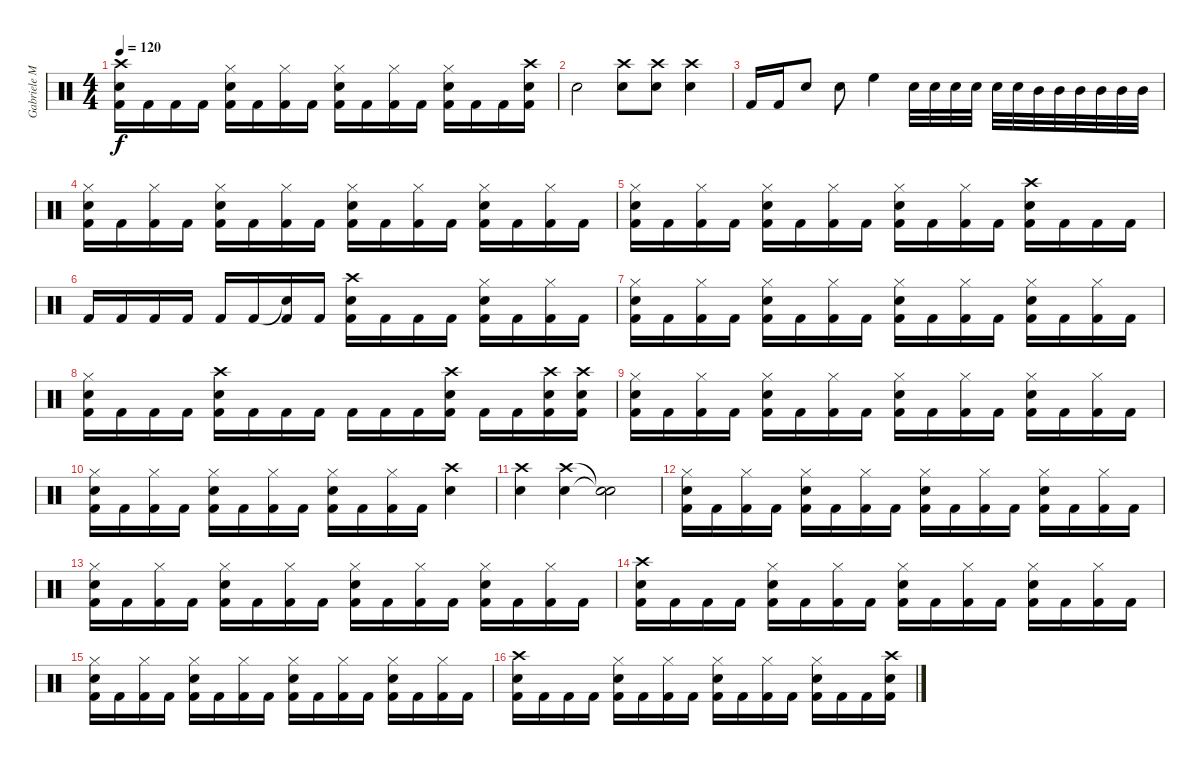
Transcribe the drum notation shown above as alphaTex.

\track ("Gabriele Malatesta" "Gabriele M") {instrument percussion}
\staff {score}
\articulation defaults
\ts (4 4)
\tempo 120
\clef neutral
\ks c
("Crash high (hit)" "Electric Snare (hit)" "Kick (hit) 2").16{dy f} "Kick (hit) 2".16 "Kick (hit) 2".16 "Kick (hit) 2".16 ("Hi-Hat (closed)" "Electric Snare (hit)" "Kick (hit) 2").16 "Kick (hit) 2".16 ("Hi-Hat (closed)" "Kick (hit) 2").16 "Kick (hit) 2".16 ("Hi-Hat (closed)" "Electric Snare (hit)" "Kick (hit) 2").16 "Kick (hit) 2".16 ("Hi-Hat (closed)" "Kick (hit) 2").16 "Kick (hit) 2".16 ("Hi-Hat (closed)" "Electric Snare (hit)" "Kick (hit) 2").16 "Kick (hit) 2".16 "Kick (hit) 2".16 ("Crash high (hit)" "Electric Snare (hit)" "Kick (hit) 2").16 |
"Electric Snare (hit)".2 ("Crash high (hit)" "Electric Snare (hit)").8 ("Crash high (hit)" "Electric Snare (hit)").8 ("Crash high (hit)" "Electric Snare (hit)").4 |
"Kick (hit) 2".16 "Kick (hit) 2".16 "Electric Snare (hit)".8 "Electric Snare (hit)".8 "High Floor Tom (hit)".4 "Electric Snare (hit)".32 "Electric Snare (hit)".32 "Electric Snare (hit)".32 "Electric Snare (hit)".32 "Electric Snare (hit)".32 "Electric Snare (hit)".32 "Mid Tom (hit)".32 "Mid Tom (hit)".32 "Mid Tom (hit)".32 "Mid Tom (hit)".32 "Mid Tom (hit)".32 "Mid Tom (hit)".32 |
("Hi-Hat (closed)" "Electric Snare (hit)" "Kick (hit) 2").16 "Kick (hit) 2".16 ("Hi-Hat (closed)" "Kick (hit) 2").16 "Kick (hit) 2".16 ("Hi-Hat (closed)" "Electric Snare (hit)" "Kick (hit) 2").16 "Kick (hit) 2".16 ("Hi-Hat (closed)" "Kick (hit) 2").16 "Kick (hit) 2".16 ("Hi-Hat (closed)" "Electric Snare (hit)" "Kick (hit) 2").16 "Kick (hit) 2".16 ("Hi-Hat (closed)" "Kick (hit) 2").16 "Kick (hit) 2".16 ("Hi-Hat (closed)" "Electric Snare (hit)" "Kick (hit) 2").16 "Kick (hit) 2".16 ("Hi-Hat (closed)" "Kick (hit) 2").16 "Kick (hit) 2".16 |
("Hi-Hat (closed)" "Electric Snare (hit)" "Kick (hit) 2").16 "Kick (hit) 2".16 ("Hi-Hat (closed)" "Kick (hit) 2").16 "Kick (hit) 2".16 ("Hi-Hat (closed)" "Electric Snare (hit)" "Kick (hit) 2").16 "Kick (hit) 2".16 ("Hi-Hat (closed)" "Kick (hit) 2").16 "Kick (hit) 2".16 ("Hi-Hat (closed)" "Electric Snare (hit)" "Kick (hit) 2").16 "Kick (hit) 2".16 ("Hi-Hat (closed)" "Kick (hit) 2").16 "Kick (hit) 2".16 ("Crash high (hit)" "Electric Snare (hit)" "Kick (hit) 2").16 "Kick (hit) 2".16 "Kick (hit) 2".16 "Kick (hit) 2".16 |
"Kick (hit) 2".16 "Kick (hit) 2".16 "Kick (hit) 2".16 "Kick (hit) 2".16 "Kick (hit) 2".16 "Kick (hit) 2".16 ("Snare (hit)"{t} "Kick (hit) 2").16 "Kick (hit) 2".16 ("Crash high (hit)" "Electric Snare (hit)" "Kick (hit) 2").16 "Kick (hit) 2".16 "Kick (hit) 2".16 "Kick (hit) 2".16 ("Hi-Hat (closed)" "Electric Snare (hit)" "Kick (hit) 2").16 "Kick (hit) 2".16 ("Hi-Hat (closed)" "Kick (hit) 2").16 "Kick (hit) 2".16 |
("Hi-Hat (closed)" "Electric Snare (hit)" "Kick (hit) 2").16 "Kick (hit) 2".16 ("Hi-Hat (closed)" "Kick (hit) 2").16 "Kick (hit) 2".16 ("Hi-Hat (closed)" "Electric Snare (hit)" "Kick (hit) 2").16 "Kick (hit) 2".16 ("Hi-Hat (closed)" "Kick (hit) 2").16 "Kick (hit) 2".16 ("Hi-Hat (closed)" "Electric Snare (hit)" "Kick (hit) 2").16 "Kick (hit) 2".16 ("Hi-Hat (closed)" "Kick (hit) 2").16 "Kick (hit) 2".16 ("Hi-Hat (closed)" "Electric Snare (hit)" "Kick (hit) 2").16 "Kick (hit) 2".16 ("Hi-Hat (closed)" "Kick (hit) 2").16 "Kick (hit) 2".16 |
("Hi-Hat (closed)" "Electric Snare (hit)" "Kick (hit) 2").16 "Kick (hit) 2".16 "Kick (hit) 2".16 "Kick (hit) 2".16 ("Crash high (hit)" "Electric Snare (hit)" "Kick (hit) 2").16 "Kick (hit) 2".16 "Kick (hit) 2".16 "Kick (hit) 2".16 "Kick (hit) 2".16 "Kick (hit) 2".16 "Kick (hit) 2".16 ("Crash high (hit)" "Electric Snare (hit)" "Kick (hit) 2").16 "Kick (hit) 2".16 "Kick (hit) 2".16 ("Crash high (hit)" "Electric Snare (hit)" "Kick (hit) 2").16 ("Crash high (hit)" "Electric Snare (hit)" "Kick (hit) 2").16 |
("Hi-Hat (closed)" "Electric Snare (hit)" "Kick (hit) 2").16 "Kick (hit) 2".16 ("Hi-Hat (closed)" "Kick (hit) 2").16 "Kick (hit) 2".16 ("Hi-Hat (closed)" "Electric Snare (hit)" "Kick (hit) 2").16 "Kick (hit) 2".16 ("Hi-Hat (closed)" "Kick (hit) 2").16 "Kick (hit) 2".16 ("Hi-Hat (closed)" "Electric Snare (hit)" "Kick (hit) 2").16 "Kick (hit) 2".16 ("Hi-Hat (closed)" "Kick (hit) 2").16 "Kick (hit) 2".16 ("Hi-Hat (closed)" "Electric Snare (hit)" "Kick (hit) 2").16 "Kick (hit) 2".16 ("Hi-Hat (closed)" "Kick (hit) 2").16 "Kick (hit) 2".16 |
("Hi-Hat (closed)" "Electric Snare (hit)" "Kick (hit) 2").16 "Kick (hit) 2".16 ("Hi-Hat (closed)" "Kick (hit) 2").16 "Kick (hit) 2".16 ("Hi-Hat (closed)" "Electric Snare (hit)" "Kick (hit) 2").16 "Kick (hit) 2".16 ("Hi-Hat (closed)" "Kick (hit) 2").16 "Kick (hit) 2".16 ("Hi-Hat (closed)" "Electric Snare (hit)" "Kick (hit) 2").16 "Kick (hit) 2".16 ("Hi-Hat (closed)" "Kick (hit) 2").16 "Kick (hit) 2".16 ("Crash high (hit)" "Electric Snare (hit)").4 |
("Crash high (hit)" "Electric Snare (hit)").4 ("Crash high (hit)" "Electric Snare (hit)").4 ("Snare (hit)"{t} "Snare (hit)"{t}).2 |
("Hi-Hat (closed)" "Electric Snare (hit)" "Kick (hit) 2").16 "Kick (hit) 2".16 ("Hi-Hat (closed)" "Kick (hit) 2").16 "Kick (hit) 2".16 ("Hi-Hat (closed)" "Electric Snare (hit)" "Kick (hit) 2").16 "Kick (hit) 2".16 ("Hi-Hat (closed)" "Kick (hit) 2").16 "Kick (hit) 2".16 ("Hi-Hat (closed)" "Electric Snare (hit)" "Kick (hit) 2").16 "Kick (hit) 2".16 ("Hi-Hat (closed)" "Kick (hit) 2").16 "Kick (hit) 2".16 ("Hi-Hat (closed)" "Electric Snare (hit)" "Kick (hit) 2").16 "Kick (hit) 2".16 ("Hi-Hat (closed)" "Kick (hit) 2").16 "Kick (hit) 2".16 |
("Hi-Hat (closed)" "Electric Snare (hit)" "Kick (hit) 2").16 "Kick (hit) 2".16 ("Hi-Hat (closed)" "Kick (hit) 2").16 "Kick (hit) 2".16 ("Hi-Hat (closed)" "Electric Snare (hit)" "Kick (hit) 2").16 "Kick (hit) 2".16 ("Hi-Hat (closed)" "Kick (hit) 2").16 "Kick (hit) 2".16 ("Hi-Hat (closed)" "Electric Snare (hit)" "Kick (hit) 2").16 "Kick (hit) 2".16 ("Hi-Hat (closed)" "Kick (hit) 2").16 "Kick (hit) 2".16 ("Hi-Hat (closed)" "Electric Snare (hit)" "Kick (hit) 2").16 "Kick (hit) 2".16 ("Hi-Hat (closed)" "Kick (hit) 2").16 "Kick (hit) 2".16 |
("Crash high (hit)" "Electric Snare (hit)" "Kick (hit) 2").16 "Kick (hit) 2".16 "Kick (hit) 2".16 "Kick (hit) 2".16 ("Hi-Hat (closed)" "Electric Snare (hit)" "Kick (hit) 2").16 "Kick (hit) 2".16 ("Hi-Hat (closed)" "Kick (hit) 2").16 "Kick (hit) 2".16 ("Hi-Hat (closed)" "Electric Snare (hit)" "Kick (hit) 2").16 "Kick (hit) 2".16 ("Hi-Hat (closed)" "Kick (hit) 2").16 "Kick (hit) 2".16 ("Hi-Hat (closed)" "Electric Snare (hit)" "Kick (hit) 2").16 "Kick (hit) 2".16 ("Hi-Hat (closed)" "Kick (hit) 2").16 "Kick (hit) 2".16 |
("Hi-Hat (closed)" "Electric Snare (hit)" "Kick (hit) 2").16 "Kick (hit) 2".16 ("Hi-Hat (closed)" "Kick (hit) 2").16 "Kick (hit) 2".16 ("Hi-Hat (closed)" "Electric Snare (hit)" "Kick (hit) 2").16 "Kick (hit) 2".16 ("Hi-Hat (closed)" "Kick (hit) 2").16 "Kick (hit) 2".16 ("Hi-Hat (closed)" "Electric Snare (hit)" "Kick (hit) 2").16 "Kick (hit) 2".16 ("Hi-Hat (closed)" "Kick (hit) 2").16 "Kick (hit) 2".16 ("Hi-Hat (closed)" "Electric Snare (hit)" "Kick (hit) 2").16 "Kick (hit) 2".16 ("Hi-Hat (closed)" "Kick (hit) 2").16 "Kick (hit) 2".16 |
("Crash high (hit)" "Electric Snare (hit)" "Kick (hit) 2").16 "Kick (hit) 2".16 "Kick (hit) 2".16 "Kick (hit) 2".16 ("Hi-Hat (closed)" "Electric Snare (hit)" "Kick (hit) 2").16 "Kick (hit) 2".16 ("Hi-Hat (closed)" "Kick (hit) 2").16 "Kick (hit) 2".16 ("Hi-Hat (closed)" "Electric Snare (hit)" "Kick (hit) 2").16 "Kick (hit) 2".16 ("Hi-Hat (closed)" "Kick (hit) 2").16 "Kick (hit) 2".16 ("Hi-Hat (closed)" "Electric Snare (hit)" "Kick (hit) 2").16 "Kick (hit) 2".16 "Kick (hit) 2".16 ("Crash high (hit)" "Electric Snare (hit)" "Kick (hit) 2").16
